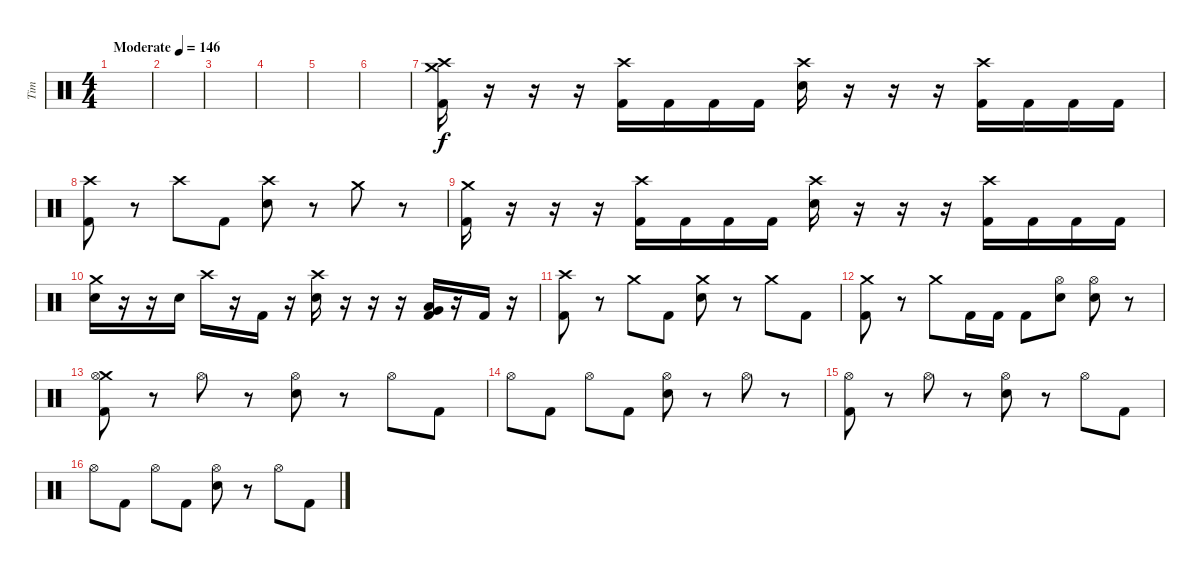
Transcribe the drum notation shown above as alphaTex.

\track ("Tim" "Tim") {instrument percussion}
\staff {score}
\articulation defaults
\ts (4 4)
\tempo (146 "Moderate")
\clef neutral
\ks c
|
|
|
|
|
|
("Crash medium (hit)" "Crash high (hit)" "Kick (hit) 2").16 r.16 r.16 r.16 ("Crash high (hit)" "Kick (hit) 2").16 "Kick (hit) 2".16 "Kick (hit) 2".16 "Kick (hit) 2".16 ("Crash high (hit)" "Electric Snare (hit)").16 r.16 r.16 r.16 ("Crash high (hit)" "Kick (hit) 2").16 "Kick (hit) 2".16 "Kick (hit) 2".16 "Kick (hit) 2".16 |
("Crash high (hit)" "Kick (hit) 2").8 r.8 "Crash high (hit)".8 "Kick (hit) 2".8 ("Crash high (hit)" "Electric Snare (hit)").8 r.8 "Crash medium (hit)".8 r.8 |
("Crash medium (hit)" "Kick (hit) 2").16 r.16 r.16 r.16 ("Crash high (hit)" "Kick (hit) 2").16 "Kick (hit) 2".16 "Kick (hit) 2".16 "Kick (hit) 2".16 ("Crash high (hit)" "Electric Snare (hit)").16 r.16 r.16 r.16 ("Crash high (hit)" "Kick (hit) 2").16 "Kick (hit) 2".16 "Kick (hit) 2".16 "Kick (hit) 2".16 |
("Crash medium (hit)" "Electric Snare (hit)").16 r.16 r.16 "Electric Snare (hit)".16 "Crash high (hit)".16 r.16 "Kick (hit) 2".16 r.16 ("Crash high (hit)" "Electric Snare (hit)").16 r.16 r.16 r.16 ("Low Tom (hit)" "Very Low Tom (hit)" "Kick (hit) 2").16 r.16 "Kick (hit) 2".16 r.16 |
("Crash high (hit)" "Kick (hit) 2").8 r.8 "Crash medium (hit)".8 "Kick (hit) 2".8 ("Crash medium (hit)" "Electric Snare (hit)").8 r.8 "Crash medium (hit)".8 "Kick (hit) 2".8 |
("Crash medium (hit)" "Kick (hit) 2").8 r.8 "Crash medium (hit)".8 "Kick (hit) 2".16 "Kick (hit) 2".16 "Kick (hit) 2".8 ("Hi-Hat (open)" "Electric Snare (hit)").8 ("Hi-Hat (open)" "Electric Snare (hit)").8 r.8 |
("Crash medium (hit)" "Hi-Hat (open)" "Kick (hit) 2").8 r.8 "Hi-Hat (open)".8 r.8 ("Hi-Hat (open)" "Electric Snare (hit)").8 r.8 "Hi-Hat (open)".8 "Kick (hit) 2".8 |
"Hi-Hat (open)".8 "Kick (hit) 2".8 "Hi-Hat (open)".8 "Kick (hit) 2".8 ("Hi-Hat (open)" "Electric Snare (hit)").8 r.8 "Hi-Hat (open)".8 r.8 |
("Hi-Hat (open)" "Kick (hit) 2").8 r.8 "Hi-Hat (open)".8 r.8 ("Hi-Hat (open)" "Electric Snare (hit)").8 r.8 "Hi-Hat (open)".8 "Kick (hit) 2".8 |
"Hi-Hat (open)".8 "Kick (hit) 2".8 "Hi-Hat (open)".8 "Kick (hit) 2".8 ("Hi-Hat (open)" "Electric Snare (hit)").8 r.8 "Hi-Hat (open)".8 "Kick (hit) 2".8
